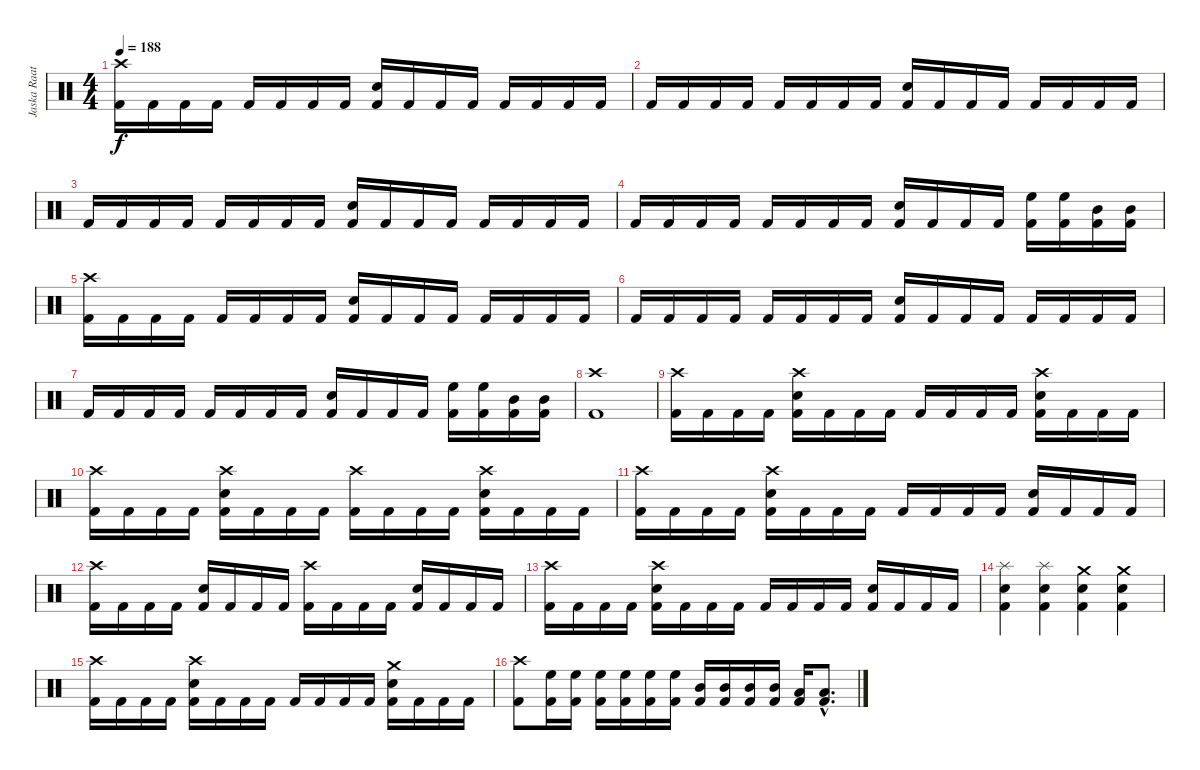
\track ("Jaska Raatikainen" "Jaska Raat") {instrument percussion}
\staff {score}
\articulation defaults
\ts (4 4)
\tempo 188
\clef neutral
\ks c
("Crash high (hit)" "Kick (hit) 2").16{dy f} "Kick (hit) 2".16 "Kick (hit) 2".16 "Kick (hit) 2".16 "Kick (hit) 2".16 "Kick (hit) 2".16 "Kick (hit) 2".16 "Kick (hit) 2".16 ("Electric Snare (hit)" "Kick (hit) 2").16 "Kick (hit) 2".16 "Kick (hit) 2".16 "Kick (hit) 2".16 "Kick (hit) 2".16 "Kick (hit) 2".16 "Kick (hit) 2".16 "Kick (hit) 2".16 |
"Kick (hit) 2".16 "Kick (hit) 2".16 "Kick (hit) 2".16 "Kick (hit) 2".16 "Kick (hit) 2".16 "Kick (hit) 2".16 "Kick (hit) 2".16 "Kick (hit) 2".16 ("Electric Snare (hit)" "Kick (hit) 2").16 "Kick (hit) 2".16 "Kick (hit) 2".16 "Kick (hit) 2".16 "Kick (hit) 2".16 "Kick (hit) 2".16 "Kick (hit) 2".16 "Kick (hit) 2".16 |
"Kick (hit) 2".16 "Kick (hit) 2".16 "Kick (hit) 2".16 "Kick (hit) 2".16 "Kick (hit) 2".16 "Kick (hit) 2".16 "Kick (hit) 2".16 "Kick (hit) 2".16 ("Electric Snare (hit)" "Kick (hit) 2").16 "Kick (hit) 2".16 "Kick (hit) 2".16 "Kick (hit) 2".16 "Kick (hit) 2".16 "Kick (hit) 2".16 "Kick (hit) 2".16 "Kick (hit) 2".16 |
"Kick (hit) 2".16 "Kick (hit) 2".16 "Kick (hit) 2".16 "Kick (hit) 2".16 "Kick (hit) 2".16 "Kick (hit) 2".16 "Kick (hit) 2".16 "Kick (hit) 2".16 ("Electric Snare (hit)" "Kick (hit) 2").16 "Kick (hit) 2".16 "Kick (hit) 2".16 "Kick (hit) 2".16 ("High Floor Tom (hit)" "Kick (hit) 2").16 ("High Floor Tom (hit)" "Kick (hit) 2").16 ("Mid Tom (hit)" "Kick (hit) 2").16 ("Mid Tom (hit)" "Kick (hit) 2").16 |
("Crash high (hit)" "Kick (hit) 2").16 "Kick (hit) 2".16 "Kick (hit) 2".16 "Kick (hit) 2".16 "Kick (hit) 2".16 "Kick (hit) 2".16 "Kick (hit) 2".16 "Kick (hit) 2".16 ("Electric Snare (hit)" "Kick (hit) 2").16 "Kick (hit) 2".16 "Kick (hit) 2".16 "Kick (hit) 2".16 "Kick (hit) 2".16 "Kick (hit) 2".16 "Kick (hit) 2".16 "Kick (hit) 2".16 |
"Kick (hit) 2".16 "Kick (hit) 2".16 "Kick (hit) 2".16 "Kick (hit) 2".16 "Kick (hit) 2".16 "Kick (hit) 2".16 "Kick (hit) 2".16 "Kick (hit) 2".16 ("Electric Snare (hit)" "Kick (hit) 2").16 "Kick (hit) 2".16 "Kick (hit) 2".16 "Kick (hit) 2".16 "Kick (hit) 2".16 "Kick (hit) 2".16 "Kick (hit) 2".16 "Kick (hit) 2".16 |
"Kick (hit) 2".16 "Kick (hit) 2".16 "Kick (hit) 2".16 "Kick (hit) 2".16 "Kick (hit) 2".16 "Kick (hit) 2".16 "Kick (hit) 2".16 "Kick (hit) 2".16 ("Electric Snare (hit)" "Kick (hit) 2").16 "Kick (hit) 2".16 "Kick (hit) 2".16 "Kick (hit) 2".16 ("High Floor Tom (hit)" "Kick (hit) 2").16 ("High Floor Tom (hit)" "Kick (hit) 2").16 ("Mid Tom (hit)" "Kick (hit) 2").16 ("Mid Tom (hit)" "Kick (hit) 2").16 |
("Crash high (hit)" "Kick (hit) 2").1 |
("Crash high (hit)" "Kick (hit) 2").16 "Kick (hit) 2".16 "Kick (hit) 2".16 "Kick (hit) 2".16 ("Crash high (hit)" "Electric Snare (hit)" "Kick (hit) 2").16 "Kick (hit) 2".16 "Kick (hit) 2".16 "Kick (hit) 2".16 "Kick (hit) 2".16 "Kick (hit) 2".16 "Kick (hit) 2".16 "Kick (hit) 2".16 ("Crash high (hit)" "Electric Snare (hit)" "Kick (hit) 2").16 "Kick (hit) 2".16 "Kick (hit) 2".16 "Kick (hit) 2".16 |
("Crash high (hit)" "Kick (hit) 2").16 "Kick (hit) 2".16 "Kick (hit) 2".16 "Kick (hit) 2".16 ("Crash high (hit)" "Electric Snare (hit)" "Kick (hit) 2").16 "Kick (hit) 2".16 "Kick (hit) 2".16 "Kick (hit) 2".16 ("Crash high (hit)" "Kick (hit) 2").16 "Kick (hit) 2".16 "Kick (hit) 2".16 "Kick (hit) 2".16 ("Crash high (hit)" "Electric Snare (hit)" "Kick (hit) 2").16 "Kick (hit) 2".16 "Kick (hit) 2".16 "Kick (hit) 2".16 |
("Crash high (hit)" "Kick (hit) 2").16 "Kick (hit) 2".16 "Kick (hit) 2".16 "Kick (hit) 2".16 ("Crash high (hit)" "Electric Snare (hit)" "Kick (hit) 2").16 "Kick (hit) 2".16 "Kick (hit) 2".16 "Kick (hit) 2".16 "Kick (hit) 2".16 "Kick (hit) 2".16 "Kick (hit) 2".16 "Kick (hit) 2".16 ("Electric Snare (hit)" "Kick (hit) 2").16 "Kick (hit) 2".16 "Kick (hit) 2".16 "Kick (hit) 2".16 |
("Crash high (hit)" "Kick (hit) 2").16 "Kick (hit) 2".16 "Kick (hit) 2".16 "Kick (hit) 2".16 ("Electric Snare (hit)" "Kick (hit) 2").16 "Kick (hit) 2".16 "Kick (hit) 2".16 "Kick (hit) 2".16 ("Crash high (hit)" "Kick (hit) 2").16 "Kick (hit) 2".16 "Kick (hit) 2".16 "Kick (hit) 2".16 ("Electric Snare (hit)" "Kick (hit) 2").16 "Kick (hit) 2".16 "Kick (hit) 2".16 "Kick (hit) 2".16 |
("Crash high (hit)" "Kick (hit) 2").16 "Kick (hit) 2".16 "Kick (hit) 2".16 "Kick (hit) 2".16 ("Crash high (hit)" "Electric Snare (hit)" "Kick (hit) 2").16 "Kick (hit) 2".16 "Kick (hit) 2".16 "Kick (hit) 2".16 "Kick (hit) 2".16 "Kick (hit) 2".16 "Kick (hit) 2".16 "Kick (hit) 2".16 ("Electric Snare (hit)" "Kick (hit) 2").16 "Kick (hit) 2".16 "Kick (hit) 2".16 "Kick (hit) 2".16 |
("Splash (hit)" "Electric Snare (hit)" "Kick (hit) 2").4 ("Splash (hit)" "Electric Snare (hit)" "Kick (hit) 2").4 ("Crash medium (hit)" "Electric Snare (hit)" "Kick (hit) 2").4 ("Crash medium (hit)" "Electric Snare (hit)" "Kick (hit) 2").4 |
("Crash high (hit)" "Kick (hit) 2").16 "Kick (hit) 2".16 "Kick (hit) 2".16 "Kick (hit) 2".16 ("Crash high (hit)" "Electric Snare (hit)" "Kick (hit) 2").16 "Kick (hit) 2".16 "Kick (hit) 2".16 "Kick (hit) 2".16 "Kick (hit) 2".16 "Kick (hit) 2".16 "Kick (hit) 2".16 "Kick (hit) 2".16 ("Crash medium (hit)" "Electric Snare (hit)" "Kick (hit) 2").16 "Kick (hit) 2".16 "Kick (hit) 2".16 "Kick (hit) 2".16 |
("Crash high (hit)" "Kick (hit) 2").8 ("High Floor Tom (hit)" "Kick (hit) 2").16 ("High Floor Tom (hit)" "Kick (hit) 2").16 ("High Floor Tom (hit)" "Kick (hit) 2").16 ("High Floor Tom (hit)" "Kick (hit) 2").16 ("High Floor Tom (hit)" "Kick (hit) 2").16 ("High Floor Tom (hit)" "Kick (hit) 2").16 ("Mid Tom (hit)" "Kick (hit) 2").16 ("Mid Tom (hit)" "Kick (hit) 2").16 ("Mid Tom (hit)" "Kick (hit) 2").16 ("Mid Tom (hit)" "Kick (hit) 2").16 ("Low Tom (hit)" "Kick (hit) 2").16 ("Low Tom (hit)"{hac} "Kick (hit) 2"{hac}).8{d}
